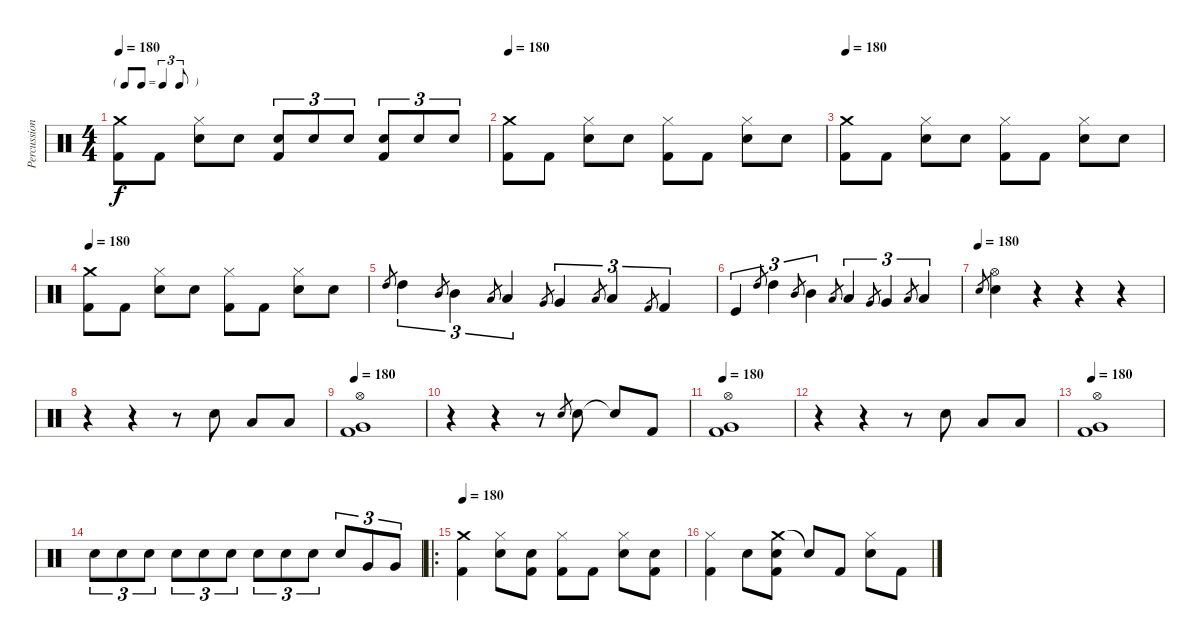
\track ("Percussions" "Percussion") {instrument percussion}
\staff {score}
\articulation defaults
\ts (4 4)
\tf triplet8th
\tempo 180
\clef neutral
\ks c
("Crash medium (hit)" "Kick (hit) 2").8{dy f} "Kick (hit) 2".8 ("Hi-Hat (closed)" "Electric Snare (hit)").8 "Electric Snare (hit)".8 ("Electric Snare (hit)" "Kick (hit) 2").8{tu (3 2)} "Electric Snare (hit)".8{tu (3 2)} "Electric Snare (hit)".8{tu (3 2)} ("Electric Snare (hit)" "Kick (hit) 2").8{tu (3 2)} "Electric Snare (hit)".8{tu (3 2)} "Electric Snare (hit)".8{tu (3 2)} |
\tempo 180
("Crash medium (hit)" "Kick (hit) 2").8 "Kick (hit) 2".8 ("Hi-Hat (closed)" "Electric Snare (hit)").8 "Electric Snare (hit)".8 ("Hi-Hat (closed)" "Kick (hit) 2").8 "Kick (hit) 2".8 ("Hi-Hat (closed)" "Electric Snare (hit)").8 "Electric Snare (hit)".8 |
\tempo 180
("Crash medium (hit)" "Kick (hit) 2").8 "Kick (hit) 2".8 ("Hi-Hat (closed)" "Electric Snare (hit)").8 "Electric Snare (hit)".8 ("Hi-Hat (closed)" "Kick (hit) 2").8 "Kick (hit) 2".8 ("Hi-Hat (closed)" "Electric Snare (hit)").8 "Electric Snare (hit)".8 |
\tempo 180
("Crash medium (hit)" "Kick (hit) 2").8 "Kick (hit) 2".8 ("Hi-Hat (closed)" "Electric Snare (hit)").8 "Electric Snare (hit)".8 ("Hi-Hat (closed)" "Kick (hit) 2").8 "Kick (hit) 2".8 ("Hi-Hat (closed)" "Electric Snare (hit)").8 "Electric Snare (hit)".8 |
"High Tom (hit)".8{gr} "High Tom (hit)".4{tu (3 2)} "Mid Tom (hit)".8{gr} "Mid Tom (hit)".4{tu (3 2)} "Low Tom (hit)".8{gr} "Low Tom (hit)".4{tu (3 2)} "Very Low Tom (hit)".8{gr} "Very Low Tom (hit)".4{tu (3 2)} "Low Floor Tom (hit)".8{gr} "Low Floor Tom (hit)".4{tu (3 2)} "Kick (hit) 2".8{gr} "Kick (hit) 2".4{tu (3 2)} |
"Kick (hit)".4{tu (3 2)} "High Tom (hit)".8{gr} "High Tom (hit)".4{tu (3 2)} "Mid Tom (hit)".8{gr} "Mid Tom (hit)".4{tu (3 2)} "Low Tom (hit)".8{gr} "Low Tom (hit)".4{tu (3 2)} "Very Low Tom (hit)".8{gr} "Very Low Tom (hit)".4{tu (3 2)} "Low Floor Tom (hit)".8{gr} "Low Floor Tom (hit)".4{tu (3 2)} |
\tempo (180)
"Electric Snare (hit)".8{gr} ("Hi-Hat (open)" "Electric Snare (hit)").4 r.4 r.4 r.4 |
r.4 r.4 r.8 "Electric Snare (hit)".8 "Low Floor Tom (hit)".8 "Low Floor Tom (hit)".8 |
\tempo 180
("Hi-Hat (open)" "Very Low Tom (hit)" "Kick (hit) 2").1 |
r.4 r.4 r.8 "Electric Snare (hit)".8{gr} "Electric Snare (hit)".8 "Snare (hit)"{t}.8 "Kick (hit) 2".8 |
\tempo 180
("Hi-Hat (open)" "Very Low Tom (hit)" "Kick (hit) 2").1 |
r.4 r.4 r.8 "Electric Snare (hit)".8 "Low Floor Tom (hit)".8 "Low Floor Tom (hit)".8 |
\tempo 180
("Hi-Hat (open)" "Very Low Tom (hit)" "Kick (hit) 2").1 |
"Electric Snare (hit)".8{tu (3 2)} "Electric Snare (hit)".8{tu (3 2)} "Electric Snare (hit)".8{tu (3 2)} "Electric Snare (hit)".8{tu (3 2)} "Electric Snare (hit)".8{tu (3 2)} "Electric Snare (hit)".8{tu (3 2)} "Electric Snare (hit)".8{tu (3 2)} "Electric Snare (hit)".8{tu (3 2)} "Electric Snare (hit)".8{tu (3 2)} "Electric Snare (hit)".8{tu (3 2)} "Very Low Tom (hit)".8{tu (3 2)} "Very Low Tom (hit)".8{tu (3 2)} |
\ro
\tempo 180
("Crash medium (hit)" "Kick (hit) 2").4 ("Hi-Hat (closed)" "Electric Snare (hit)").8 ("Electric Snare (hit)" "Kick (hit) 2").8 ("Hi-Hat (closed)" "Kick (hit) 2").8 "Kick (hit) 2".8 ("Hi-Hat (closed)" "Electric Snare (hit)").8 ("Electric Snare (hit)" "Kick (hit) 2").8 |
("Hi-Hat (closed)" "Kick (hit) 2").4 "Electric Snare (hit)".8 ("Crash medium (hit)" "Electric Snare (hit)" "Kick (hit) 2").8 "Snare (hit)"{t}.8 "Kick (hit) 2".8 ("Hi-Hat (closed)" "Electric Snare (hit)").8 "Kick (hit) 2".8
